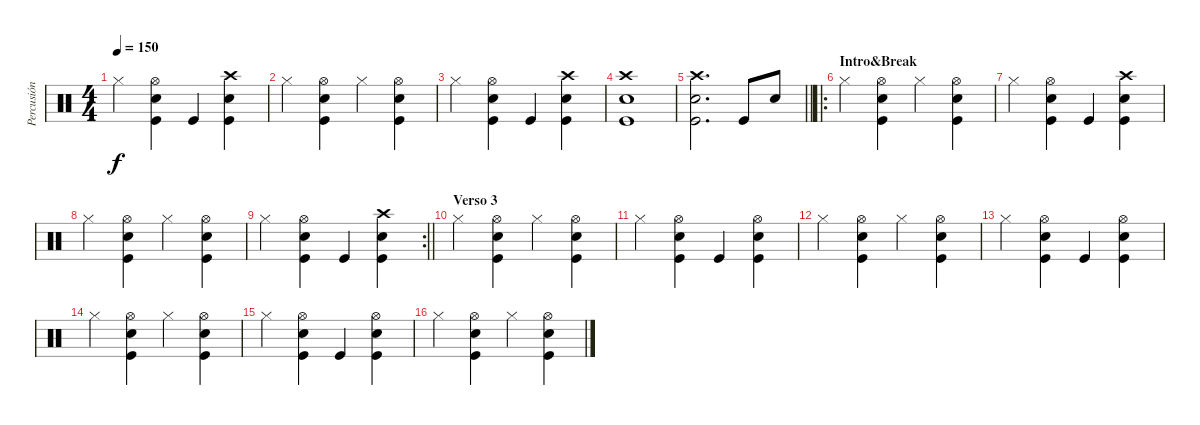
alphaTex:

\track ("Percusión" "Percusión") {instrument percussion}
\staff {score}
\articulation defaults
\ts (4 4)
\tempo 150
\clef neutral
\ks c "Hi-Hat (closed)".4{dy f}
("Kick (hit)" "Snare (hit) 2" "Hi-Hat (open)").4 "Kick (hit)".4 ("Kick (hit)" "Snare (hit) 2" "Crash high (hit)").4 |
"Hi-Hat (closed)".4 ("Kick (hit)" "Snare (hit) 2" "Hi-Hat (open)").4 "Hi-Hat (closed)".4 ("Kick (hit)" "Snare (hit) 2" "Hi-Hat (open)").4 |
"Hi-Hat (closed)".4 ("Kick (hit)" "Snare (hit) 2" "Hi-Hat (open)").4 "Kick (hit)".4 ("Kick (hit)" "Snare (hit) 2" "Crash high (hit)").4 |
("Kick (hit)" "Snare (hit) 2" "Crash high (hit)").1 |
\barLineRight lightlight
("Kick (hit)" "Snare (hit) 2" "Crash high (hit)").2{d} "Kick (hit)".8 "Snare (hit) 2".8 |
\ro
\section ("" "Intro&Break")
"Hi-Hat (closed)".4 ("Kick (hit)" "Snare (hit) 2" "Hi-Hat (open)").4 "Hi-Hat (closed)".4 ("Kick (hit)" "Snare (hit) 2" "Hi-Hat (open)").4 |
"Hi-Hat (closed)".4 ("Kick (hit)" "Snare (hit) 2" "Hi-Hat (open)").4 "Kick (hit)".4 ("Kick (hit)" "Snare (hit) 2" "Crash high (hit)").4 |
"Hi-Hat (closed)".4 ("Kick (hit)" "Snare (hit) 2" "Hi-Hat (open)").4 "Hi-Hat (closed)".4 ("Kick (hit)" "Snare (hit) 2" "Hi-Hat (open)").4 |
\rc 2
\barLineRight lightlight "Hi-Hat (closed)".4
("Kick (hit)" "Snare (hit) 2" "Hi-Hat (open)").4 "Kick (hit)".4 ("Kick (hit)" "Snare (hit) 2" "Crash high (hit)").4 |
\section ("" "Verso 3")
"Hi-Hat (closed)".4 ("Kick (hit)" "Snare (hit) 2" "Hi-Hat (open)").4 "Hi-Hat (closed)".4 ("Kick (hit)" "Snare (hit) 2" "Hi-Hat (open)").4 |
"Hi-Hat (closed)".4 ("Kick (hit)" "Snare (hit) 2" "Hi-Hat (open)").4 "Kick (hit)".4 ("Kick (hit)" "Snare (hit) 2" "Hi-Hat (open)").4 |
"Hi-Hat (closed)".4 ("Kick (hit)" "Snare (hit) 2" "Hi-Hat (open)").4 "Hi-Hat (closed)".4 ("Kick (hit)" "Snare (hit) 2" "Hi-Hat (open)").4 |
"Hi-Hat (closed)".4 ("Kick (hit)" "Snare (hit) 2" "Hi-Hat (open)").4 "Kick (hit)".4 ("Kick (hit)" "Snare (hit) 2" "Hi-Hat (open)").4 |
"Hi-Hat (closed)".4 ("Kick (hit)" "Snare (hit) 2" "Hi-Hat (open)").4 "Hi-Hat (closed)".4 ("Kick (hit)" "Snare (hit) 2" "Hi-Hat (open)").4 |
"Hi-Hat (closed)".4 ("Kick (hit)" "Snare (hit) 2" "Hi-Hat (open)").4 "Kick (hit)".4 ("Kick (hit)" "Snare (hit) 2" "Hi-Hat (open)").4 |
"Hi-Hat (closed)".4 ("Kick (hit)" "Snare (hit) 2" "Hi-Hat (open)").4 "Hi-Hat (closed)".4 ("Kick (hit)" "Snare (hit) 2" "Hi-Hat (open)").4
